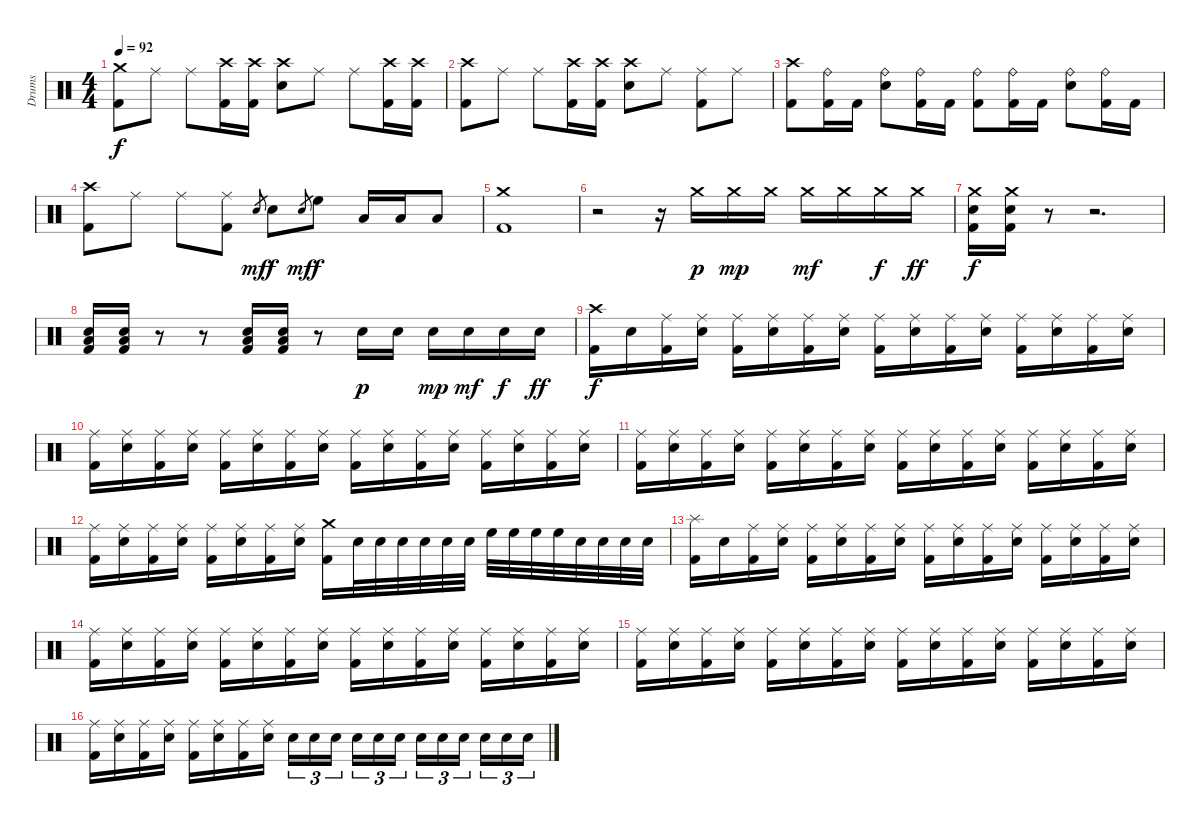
\track ("Drums" "Drums") {instrument percussion}
\staff {score}
\articulation defaults
\ts (4 4)
\tempo 92
\clef neutral
\ks c
("Crash medium (hit)" "Kick (hit) 2").8{dy f} "Ride (middle)".8 "Ride (middle)".8 ("Crash high (hit)" "Kick (hit) 2").16 ("Crash high (hit)" "Kick (hit) 2").16 ("Crash high (hit)" "Snare (hit) 2").8 "Ride (middle)".8 "Ride (middle)".8 ("Crash high (hit)" "Kick (hit) 2").16 ("Crash high (hit)" "Kick (hit) 2").16 |
("Crash high (hit)" "Kick (hit) 2").8 "Ride (middle)".8 "Ride (middle)".8 ("Crash high (hit)" "Kick (hit) 2").16 ("Crash high (hit)" "Kick (hit) 2").16 ("Crash high (hit)" "Snare (hit) 2").8 "Ride (middle)".8 ("Ride (middle)" "Kick (hit) 2").8 "Ride (middle)".8 |
("Crash high (hit)" "Kick (hit) 2").8 ("Ride (bell)" "Kick (hit) 2").16 "Kick (hit) 2".16 ("Ride (bell)" "Snare (hit) 2").8 ("Ride (bell)" "Kick (hit) 2").16 "Kick (hit) 2".16 ("Ride (bell)" "Kick (hit) 2").8 ("Ride (bell)" "Kick (hit) 2").16 "Kick (hit) 2".16 ("Ride (bell)" "Snare (hit) 2").8 ("Ride (bell)" "Kick (hit) 2").16 "Kick (hit) 2".16 |
("Crash high (hit)" "Kick (hit) 2").8 "Ride (middle)".8 "Ride (middle)".8 ("Ride (middle)" "Kick (hit) 2").8 "Snare (hit)".8{gr dy mf} "Snare (hit) 2".8{dy f} "Snare (hit)".8{gr dy mf} "High Floor Tom (hit)".8{dy f} "Low Tom (hit)".16 "Low Tom (hit)".16 "Low Floor Tom (hit)".8 |
("Crash medium (hit)" "Kick (hit) 2").1 |
r.2 r.16 "Crash medium (hit)".16{dy p} "Crash medium (hit)".16{dy mp} "Crash medium (hit)".16 "Crash medium (hit)".16{dy mf} "Crash medium (hit)".16 "Crash medium (hit)".16{dy f} "Crash medium (hit)".16{dy ff} |
("Crash medium (hit)" "Snare (hit) 2" "Kick (hit) 2").16{dy f} ("Crash medium (hit)" "Snare (hit) 2" "Kick (hit) 2").16 r.8 r.2{d} |
("Low Floor Tom (hit)" "Snare (hit) 2" "Kick (hit) 2").16 ("Low Floor Tom (hit)" "Snare (hit) 2" "Kick (hit) 2").16 r.8 r.8 ("Low Floor Tom (hit)" "Snare (hit) 2" "Kick (hit) 2").16 ("Low Floor Tom (hit)" "Snare (hit) 2" "Kick (hit) 2").16 r.8 "Snare (hit) 2".16{dy p} "Snare (hit) 2".16 "Snare (hit) 2".16{dy mp} "Snare (hit) 2".16{dy mf} "Snare (hit) 2".16{dy f} "Snare (hit) 2".16{dy ff} |
("Crash high (hit)" "Kick (hit) 2").16{dy f} "Snare (hit) 2".16 ("Ride (middle)" "Kick (hit) 2").16 ("Ride (middle)" "Snare (hit) 2").16 ("Ride (middle)" "Kick (hit) 2").16 ("Ride (middle)" "Snare (hit) 2").16 ("Ride (middle)" "Kick (hit) 2").16 ("Ride (middle)" "Snare (hit) 2").16 ("Ride (middle)" "Kick (hit) 2").16 ("Ride (middle)" "Snare (hit) 2").16 ("Ride (middle)" "Kick (hit) 2").16 ("Ride (middle)" "Snare (hit) 2").16 ("Ride (middle)" "Kick (hit) 2").16 ("Ride (middle)" "Snare (hit) 2").16 ("Ride (middle)" "Kick (hit) 2").16 ("Ride (middle)" "Snare (hit) 2").16 |
("Ride (middle)" "Kick (hit) 2").16 ("Ride (middle)" "Snare (hit) 2").16 ("Ride (middle)" "Kick (hit) 2").16 ("Ride (middle)" "Snare (hit) 2").16 ("Ride (middle)" "Kick (hit) 2").16 ("Ride (middle)" "Snare (hit) 2").16 ("Ride (middle)" "Kick (hit) 2").16 ("Ride (middle)" "Snare (hit) 2").16 ("Ride (middle)" "Kick (hit) 2").16 ("Ride (middle)" "Snare (hit) 2").16 ("Ride (middle)" "Kick (hit) 2").16 ("Ride (middle)" "Snare (hit) 2").16 ("Ride (middle)" "Kick (hit) 2").16 ("Ride (middle)" "Snare (hit) 2").16 ("Ride (middle)" "Kick (hit) 2").16 ("Ride (middle)" "Snare (hit) 2").16 |
("Ride (middle)" "Kick (hit) 2").16 ("Ride (middle)" "Snare (hit) 2").16 ("Ride (middle)" "Kick (hit) 2").16 ("Ride (middle)" "Snare (hit) 2").16 ("Ride (middle)" "Kick (hit) 2").16 ("Ride (middle)" "Snare (hit) 2").16 ("Ride (middle)" "Kick (hit) 2").16 ("Ride (middle)" "Snare (hit) 2").16 ("Ride (middle)" "Kick (hit) 2").16 ("Ride (middle)" "Snare (hit) 2").16 ("Ride (middle)" "Kick (hit) 2").16 ("Ride (middle)" "Snare (hit) 2").16 ("Ride (middle)" "Kick (hit) 2").16 ("Ride (middle)" "Snare (hit) 2").16 ("Ride (middle)" "Kick (hit) 2").16 ("Ride (middle)" "Snare (hit) 2").16 |
("Ride (middle)" "Kick (hit) 2").16 ("Ride (middle)" "Snare (hit) 2").16 ("Ride (middle)" "Kick (hit) 2").16 ("Ride (middle)" "Snare (hit) 2").16 ("Ride (middle)" "Kick (hit) 2").16 ("Ride (middle)" "Snare (hit) 2").16 ("Ride (middle)" "Kick (hit) 2").16 ("Ride (middle)" "Snare (hit) 2").16 ("Crash medium (hit)" "Kick (hit) 2").16 "Snare (hit) 2".32 "Snare (hit) 2".32 "Snare (hit) 2".32 "Snare (hit) 2".32 "Snare (hit) 2".32 "Snare (hit) 2".32 "High Floor Tom (hit)".32 "High Floor Tom (hit)".32 "High Floor Tom (hit)".32 "High Floor Tom (hit)".32 "Snare (hit) 2".32 "Snare (hit) 2".32 "Snare (hit) 2".32 "Snare (hit) 2".32 |
("Splash (hit)" "Kick (hit) 2").16 "Snare (hit) 2".16 ("Ride (middle)" "Kick (hit) 2").16 ("Ride (middle)" "Snare (hit) 2").16 ("Ride (middle)" "Kick (hit) 2").16 ("Ride (middle)" "Snare (hit) 2").16 ("Ride (middle)" "Kick (hit) 2").16 ("Ride (middle)" "Snare (hit) 2").16 ("Ride (middle)" "Kick (hit) 2").16 ("Ride (middle)" "Snare (hit) 2").16 ("Ride (middle)" "Kick (hit) 2").16 ("Ride (middle)" "Snare (hit) 2").16 ("Ride (middle)" "Kick (hit) 2").16 ("Ride (middle)" "Snare (hit) 2").16 ("Ride (middle)" "Kick (hit) 2").16 ("Ride (middle)" "Snare (hit) 2").16 |
("Ride (middle)" "Kick (hit) 2").16 ("Ride (middle)" "Snare (hit) 2").16 ("Ride (middle)" "Kick (hit) 2").16 ("Ride (middle)" "Snare (hit) 2").16 ("Ride (middle)" "Kick (hit) 2").16 ("Ride (middle)" "Snare (hit) 2").16 ("Ride (middle)" "Kick (hit) 2").16 ("Ride (middle)" "Snare (hit) 2").16 ("Ride (middle)" "Kick (hit) 2").16 ("Ride (middle)" "Snare (hit) 2").16 ("Ride (middle)" "Kick (hit) 2").16 ("Ride (middle)" "Snare (hit) 2").16 ("Ride (middle)" "Kick (hit) 2").16 ("Ride (middle)" "Snare (hit) 2").16 ("Ride (middle)" "Kick (hit) 2").16 ("Ride (middle)" "Snare (hit) 2").16 |
("Ride (middle)" "Kick (hit) 2").16 ("Ride (middle)" "Snare (hit) 2").16 ("Ride (middle)" "Kick (hit) 2").16 ("Ride (middle)" "Snare (hit) 2").16 ("Ride (middle)" "Kick (hit) 2").16 ("Ride (middle)" "Snare (hit) 2").16 ("Ride (middle)" "Kick (hit) 2").16 ("Ride (middle)" "Snare (hit) 2").16 ("Ride (middle)" "Kick (hit) 2").16 ("Ride (middle)" "Snare (hit) 2").16 ("Ride (middle)" "Kick (hit) 2").16 ("Ride (middle)" "Snare (hit) 2").16 ("Ride (middle)" "Kick (hit) 2").16 ("Ride (middle)" "Snare (hit) 2").16 ("Ride (middle)" "Kick (hit) 2").16 ("Ride (middle)" "Snare (hit) 2").16 |
("Ride (middle)" "Kick (hit) 2").16 ("Ride (middle)" "Snare (hit) 2").16 ("Ride (middle)" "Kick (hit) 2").16 ("Ride (middle)" "Snare (hit) 2").16 ("Ride (middle)" "Kick (hit) 2").16 ("Ride (middle)" "Snare (hit) 2").16 ("Ride (middle)" "Kick (hit) 2").16 ("Ride (middle)" "Snare (hit) 2").16 "Snare (hit) 2".16{tu (3 2)} "Snare (hit) 2".16{tu (3 2)} "Snare (hit) 2".16{tu (3 2)} "Snare (hit) 2".16{tu (3 2)} "Snare (hit) 2".16{tu (3 2)} "Snare (hit) 2".16{tu (3 2)} "Snare (hit) 2".16{tu (3 2)} "Snare (hit) 2".16{tu (3 2)} "Snare (hit) 2".16{tu (3 2)} "Snare (hit) 2".16{tu (3 2)} "Snare (hit) 2".16{tu (3 2)} "Snare (hit) 2".16{tu (3 2)}
